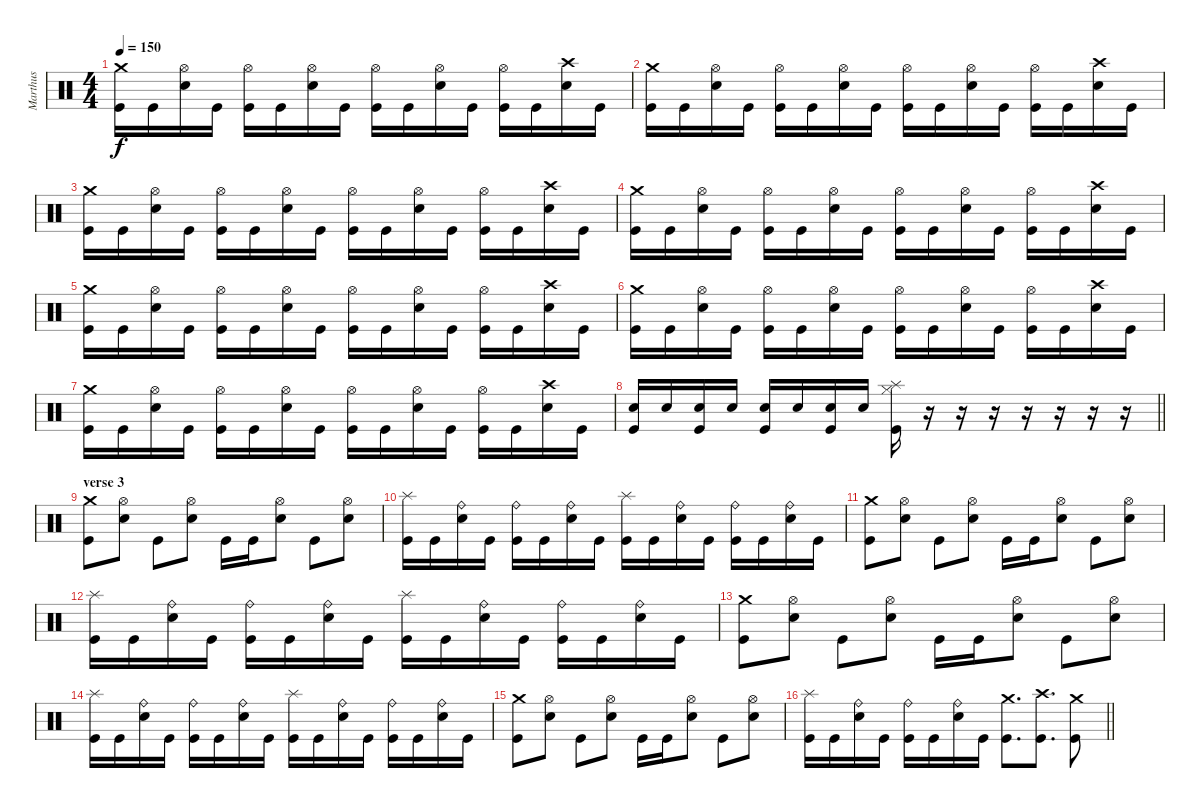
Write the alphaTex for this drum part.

\track ("Marthus" "Marthus") {instrument percussion}
\staff {score}
\articulation defaults
\ts (4 4)
\tempo 150
\clef neutral
\ks c
("Crash medium (hit)" "Kick (hit)").16{dy f} "Kick (hit)".16 ("Hi-Hat (open)" "Snare (hit) 2").16 "Kick (hit)".16 ("Hi-Hat (open)" "Kick (hit)").16 "Kick (hit)".16 ("Hi-Hat (open)" "Snare (hit) 2").16 "Kick (hit)".16 ("Hi-Hat (open)" "Kick (hit)").16 "Kick (hit)".16 ("Hi-Hat (open)" "Snare (hit) 2").16 "Kick (hit)".16 ("Hi-Hat (open)" "Kick (hit)").16 "Kick (hit)".16 ("Crash high (hit)" "Snare (hit) 2").16 "Kick (hit)".16 |
("Crash medium (hit)" "Kick (hit)").16 "Kick (hit)".16 ("Hi-Hat (open)" "Snare (hit) 2").16 "Kick (hit)".16 ("Hi-Hat (open)" "Kick (hit)").16 "Kick (hit)".16 ("Hi-Hat (open)" "Snare (hit) 2").16 "Kick (hit)".16 ("Hi-Hat (open)" "Kick (hit)").16 "Kick (hit)".16 ("Hi-Hat (open)" "Snare (hit) 2").16 "Kick (hit)".16 ("Hi-Hat (open)" "Kick (hit)").16 "Kick (hit)".16 ("Crash high (hit)" "Snare (hit) 2").16 "Kick (hit)".16 |
("Crash medium (hit)" "Kick (hit)").16 "Kick (hit)".16 ("Hi-Hat (open)" "Snare (hit) 2").16 "Kick (hit)".16 ("Hi-Hat (open)" "Kick (hit)").16 "Kick (hit)".16 ("Hi-Hat (open)" "Snare (hit) 2").16 "Kick (hit)".16 ("Hi-Hat (open)" "Kick (hit)").16 "Kick (hit)".16 ("Hi-Hat (open)" "Snare (hit) 2").16 "Kick (hit)".16 ("Hi-Hat (open)" "Kick (hit)").16 "Kick (hit)".16 ("Crash high (hit)" "Snare (hit) 2").16 "Kick (hit)".16 |
("Crash medium (hit)" "Kick (hit)").16 "Kick (hit)".16 ("Hi-Hat (open)" "Snare (hit) 2").16 "Kick (hit)".16 ("Hi-Hat (open)" "Kick (hit)").16 "Kick (hit)".16 ("Hi-Hat (open)" "Snare (hit) 2").16 "Kick (hit)".16 ("Hi-Hat (open)" "Kick (hit)").16 "Kick (hit)".16 ("Hi-Hat (open)" "Snare (hit) 2").16 "Kick (hit)".16 ("Hi-Hat (open)" "Kick (hit)").16 "Kick (hit)".16 ("Crash high (hit)" "Snare (hit) 2").16 "Kick (hit)".16 |
("Crash medium (hit)" "Kick (hit)").16 "Kick (hit)".16 ("Hi-Hat (open)" "Snare (hit) 2").16 "Kick (hit)".16 ("Hi-Hat (open)" "Kick (hit)").16 "Kick (hit)".16 ("Hi-Hat (open)" "Snare (hit) 2").16 "Kick (hit)".16 ("Hi-Hat (open)" "Kick (hit)").16 "Kick (hit)".16 ("Hi-Hat (open)" "Snare (hit) 2").16 "Kick (hit)".16 ("Hi-Hat (open)" "Kick (hit)").16 "Kick (hit)".16 ("Crash high (hit)" "Snare (hit) 2").16 "Kick (hit)".16 |
("Crash medium (hit)" "Kick (hit)").16 "Kick (hit)".16 ("Hi-Hat (open)" "Snare (hit) 2").16 "Kick (hit)".16 ("Hi-Hat (open)" "Kick (hit)").16 "Kick (hit)".16 ("Hi-Hat (open)" "Snare (hit) 2").16 "Kick (hit)".16 ("Hi-Hat (open)" "Kick (hit)").16 "Kick (hit)".16 ("Hi-Hat (open)" "Snare (hit) 2").16 "Kick (hit)".16 ("Hi-Hat (open)" "Kick (hit)").16 "Kick (hit)".16 ("Crash high (hit)" "Snare (hit) 2").16 "Kick (hit)".16 |
("Crash medium (hit)" "Kick (hit)").16 "Kick (hit)".16 ("Hi-Hat (open)" "Snare (hit) 2").16 "Kick (hit)".16 ("Hi-Hat (open)" "Kick (hit)").16 "Kick (hit)".16 ("Hi-Hat (open)" "Snare (hit) 2").16 "Kick (hit)".16 ("Hi-Hat (open)" "Kick (hit)").16 "Kick (hit)".16 ("Hi-Hat (open)" "Snare (hit) 2").16 "Kick (hit)".16 ("Hi-Hat (open)" "Kick (hit)").16 "Kick (hit)".16 ("Crash high (hit)" "Snare (hit) 2").16 "Kick (hit)".16 |
\barLineRight lightlight
("Snare (hit) 2" "Kick (hit)").16 "Snare (hit) 2".16 ("Snare (hit) 2" "Kick (hit)").16 "Snare (hit) 2".16 ("Snare (hit) 2" "Kick (hit)").16 "Snare (hit) 2".16 ("Snare (hit) 2" "Kick (hit)").16 "Snare (hit) 2".16 ("Splash (hit)" "Kick (hit)" "Hi-Hat (closed)").16 r.16 r.16 r.16 r.16 r.16 r.16 r.16 |
\section ("" "verse 3")
("Crash medium (hit)" "Kick (hit)").8 ("Hi-Hat (open)" "Snare (hit) 2").8 "Kick (hit)".8 ("Hi-Hat (open)" "Snare (hit) 2").8 "Kick (hit)".16 "Kick (hit)".16 ("Hi-Hat (open)" "Snare (hit) 2").8 "Kick (hit)".8 ("Hi-Hat (open)" "Snare (hit) 2").8 |
("Splash (hit)" "Kick (hit)").16 "Kick (hit)".16 ("Ride (bell)" "Snare (hit) 2").16 "Kick (hit)".16 ("Ride (bell)" "Kick (hit)").16 "Kick (hit)".16 ("Ride (bell)" "Snare (hit) 2").16 "Kick (hit)".16 ("Splash (hit)" "Kick (hit)").16 "Kick (hit)".16 ("Ride (bell)" "Snare (hit) 2").16 "Kick (hit)".16 ("Ride (bell)" "Kick (hit)").16 "Kick (hit)".16 ("Ride (bell)" "Snare (hit) 2").16 "Kick (hit)".16 |
("Crash medium (hit)" "Kick (hit)").8 ("Hi-Hat (open)" "Snare (hit) 2").8 "Kick (hit)".8 ("Hi-Hat (open)" "Snare (hit) 2").8 "Kick (hit)".16 "Kick (hit)".16 ("Hi-Hat (open)" "Snare (hit) 2").8 "Kick (hit)".8 ("Hi-Hat (open)" "Snare (hit) 2").8 |
("Splash (hit)" "Kick (hit)").16 "Kick (hit)".16 ("Ride (bell)" "Snare (hit) 2").16 "Kick (hit)".16 ("Ride (bell)" "Kick (hit)").16 "Kick (hit)".16 ("Ride (bell)" "Snare (hit) 2").16 "Kick (hit)".16 ("Splash (hit)" "Kick (hit)").16 "Kick (hit)".16 ("Ride (bell)" "Snare (hit) 2").16 "Kick (hit)".16 ("Ride (bell)" "Kick (hit)").16 "Kick (hit)".16 ("Ride (bell)" "Snare (hit) 2").16 "Kick (hit)".16 |
("Crash medium (hit)" "Kick (hit)").8 ("Hi-Hat (open)" "Snare (hit) 2").8 "Kick (hit)".8 ("Hi-Hat (open)" "Snare (hit) 2").8 "Kick (hit)".16 "Kick (hit)".16 ("Hi-Hat (open)" "Snare (hit) 2").8 "Kick (hit)".8 ("Hi-Hat (open)" "Snare (hit) 2").8 |
("Splash (hit)" "Kick (hit)").16 "Kick (hit)".16 ("Ride (bell)" "Snare (hit) 2").16 "Kick (hit)".16 ("Ride (bell)" "Kick (hit)").16 "Kick (hit)".16 ("Ride (bell)" "Snare (hit) 2").16 "Kick (hit)".16 ("Splash (hit)" "Kick (hit)").16 "Kick (hit)".16 ("Ride (bell)" "Snare (hit) 2").16 "Kick (hit)".16 ("Ride (bell)" "Kick (hit)").16 "Kick (hit)".16 ("Ride (bell)" "Snare (hit) 2").16 "Kick (hit)".16 |
("Crash medium (hit)" "Kick (hit)").8 ("Hi-Hat (open)" "Snare (hit) 2").8 "Kick (hit)".8 ("Hi-Hat (open)" "Snare (hit) 2").8 "Kick (hit)".16 "Kick (hit)".16 ("Hi-Hat (open)" "Snare (hit) 2").8 "Kick (hit)".8 ("Hi-Hat (open)" "Snare (hit) 2").8 |
\barLineRight lightlight
("Splash (hit)" "Kick (hit)").16 "Kick (hit)".16 ("Ride (bell)" "Snare (hit) 2").16 "Kick (hit)".16 ("Ride (bell)" "Kick (hit)").16 "Kick (hit)".16 ("Ride (bell)" "Snare (hit) 2").16 "Kick (hit)".16 ("Crash medium (hit)" "Kick (hit)").8{d} ("Crash high (hit)" "Kick (hit)").8{d} ("Crash medium (hit)" "Kick (hit)").8
